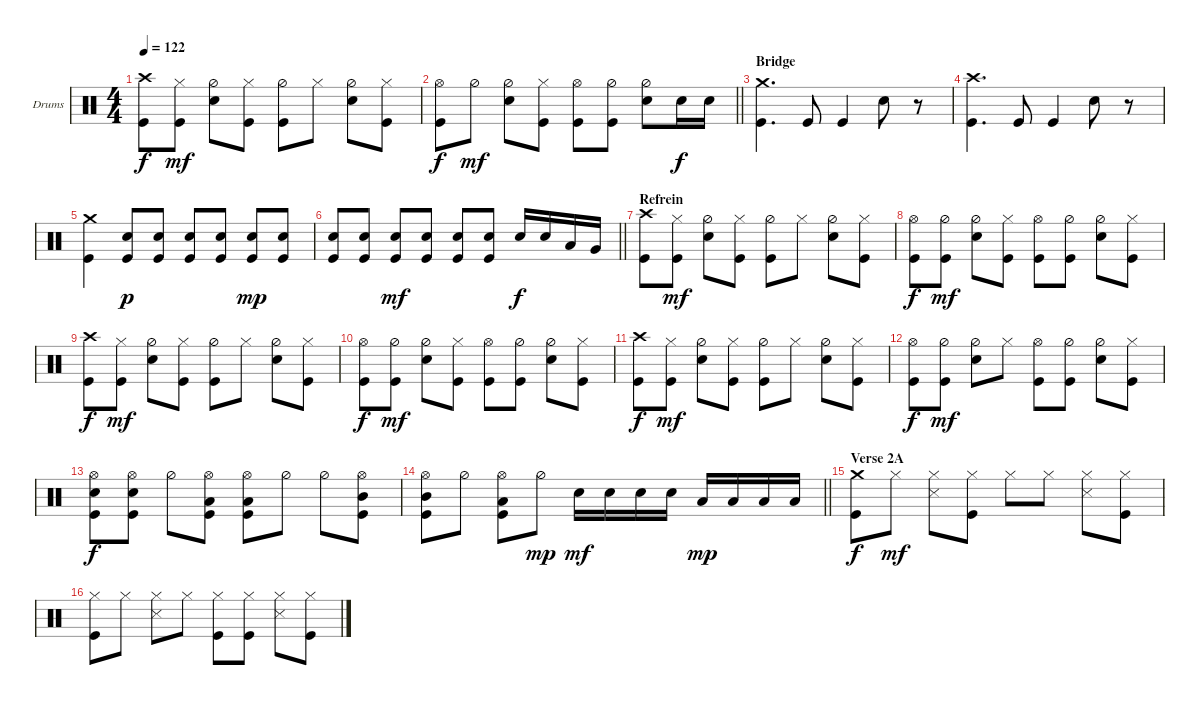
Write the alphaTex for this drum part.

\bracketExtendMode groupsimilarinstruments
\firstSystemTrackNameOrientation horizontal
\otherSystemsTrackNameOrientation horizontal
\track ("Batteria" "Drums") {instrument percussion}
\staff {score}
\articulation defaults
\ts (4 4)
\tempo 122
\clef neutral
\ks c
("Kick (hit)" "Crash high (hit)").8{dy f} ("Hi-Hat (closed)" "Kick (hit)").8{dy mf} ("Hi-Hat (half)" "Snare (hit) 2").8 ("Hi-Hat (closed)" "Kick (hit)").8 ("Hi-Hat (half)" "Kick (hit)").8 "Hi-Hat (closed)".8 ("Hi-Hat (half)" "Snare (hit) 2").8 ("Hi-Hat (closed)" "Kick (hit)").8 |
\barLineRight lightlight
("Kick (hit)" "Hi-Hat (open)").8{dy f} "Hi-Hat (half)".8{dy mf} ("Hi-Hat (half)" "Snare (hit) 2").8 ("Hi-Hat (closed)" "Kick (hit)").8 ("Hi-Hat (open)" "Kick (hit)").8 ("Hi-Hat (half)" "Kick (hit)").8 ("Hi-Hat (half)" "Snare (hit) 2").8 "Snare (hit) 2".16{dy f} "Snare (hit) 2".16 |
\section ("" "Bridge")
("Crash medium (hit)" "Kick (hit)").4{d} "Kick (hit)".8 "Kick (hit)".4 "Snare (hit) 2".8 r.8 |
("Kick (hit)" "Crash high (hit)").4{d} "Kick (hit)".8 "Kick (hit)".4 "Snare (hit) 2".8 r.8 |
("Crash medium (hit)" "Kick (hit)").4 ("Snare (hit) 2" "Kick (hit)").8{dy p} ("Kick (hit)" "Snare (hit) 2").8 ("Kick (hit)" "Snare (hit) 2").8 ("Snare (hit) 2" "Kick (hit)").8 ("Snare (hit) 2" "Kick (hit)").8{dy mp} ("Snare (hit) 2" "Kick (hit)").8 |
\barLineRight lightlight
("Snare (hit) 2" "Kick (hit)").8 ("Snare (hit) 2" "Kick (hit)").8 ("Snare (hit) 2" "Kick (hit)").8{dy mf} ("Snare (hit) 2" "Kick (hit)").8 ("Snare (hit) 2" "Kick (hit)").8 ("Snare (hit) 2" "Kick (hit)").8 "Snare (hit) 2".16{dy f} "Snare (hit) 2".16 "Low Tom (hit)".16 "Very Low Tom (hit)".16 |
\section ("" "Refrein")
("Kick (hit)" "Crash high (hit)").8 ("Hi-Hat (closed)" "Kick (hit)").8{dy mf} ("Hi-Hat (half)" "Snare (hit) 2").8 ("Hi-Hat (closed)" "Kick (hit)").8 ("Hi-Hat (half)" "Kick (hit)").8 "Hi-Hat (closed)".8 ("Hi-Hat (half)" "Snare (hit) 2").8 ("Hi-Hat (closed)" "Kick (hit)").8 |
("Kick (hit)" "Hi-Hat (open)").8{dy f} ("Hi-Hat (half)" "Kick (hit)").8{dy mf} ("Hi-Hat (half)" "Snare (hit) 2").8 ("Hi-Hat (closed)" "Kick (hit)").8 ("Hi-Hat (open)" "Kick (hit)").8 ("Hi-Hat (half)" "Kick (hit)").8 ("Hi-Hat (half)" "Snare (hit) 2").8 ("Hi-Hat (closed)" "Kick (hit)").8 |
("Kick (hit)" "Crash high (hit)").8{dy f} ("Hi-Hat (closed)" "Kick (hit)").8{dy mf} ("Hi-Hat (half)" "Snare (hit) 2").8 ("Hi-Hat (closed)" "Kick (hit)").8 ("Hi-Hat (half)" "Kick (hit)").8 "Hi-Hat (closed)".8 ("Hi-Hat (half)" "Snare (hit) 2").8 ("Hi-Hat (closed)" "Kick (hit)").8 |
("Kick (hit)" "Hi-Hat (open)").8{dy f} ("Hi-Hat (half)" "Kick (hit)").8{dy mf} ("Hi-Hat (half)" "Snare (hit) 2").8 ("Hi-Hat (closed)" "Kick (hit)").8 ("Hi-Hat (open)" "Kick (hit)").8 ("Hi-Hat (half)" "Kick (hit)").8 ("Hi-Hat (half)" "Snare (hit) 2").8 ("Hi-Hat (closed)" "Kick (hit)").8 |
("Kick (hit)" "Crash high (hit)").8{dy f} ("Hi-Hat (closed)" "Kick (hit)").8{dy mf} ("Hi-Hat (half)" "Snare (hit) 2").8 ("Hi-Hat (closed)" "Kick (hit)").8 ("Hi-Hat (half)" "Kick (hit)").8 "Hi-Hat (closed)".8 ("Hi-Hat (half)" "Snare (hit) 2").8 ("Hi-Hat (closed)" "Kick (hit)").8 |
("Kick (hit)" "Hi-Hat (open)").8{dy f} ("Hi-Hat (half)" "Kick (hit)").8{dy mf} ("Hi-Hat (half)" "Snare (hit) 2").8 "Hi-Hat (closed)".8 ("Hi-Hat (open)" "Kick (hit)").8 ("Hi-Hat (half)" "Kick (hit)").8 ("Hi-Hat (half)" "Snare (hit) 2").8 ("Hi-Hat (closed)" "Kick (hit)").8 |
("Hi-Hat (open)" "Snare (hit) 2" "Kick (hit)").8{dy f} ("Hi-Hat (open)" "Snare (hit) 2" "Kick (hit)").8 "Hi-Hat (half)".8 ("Low Tom (hit)" "Hi-Hat (open)" "Kick (hit)").8 ("Low Tom (hit)" "Hi-Hat (open)" "Kick (hit)").8 "Hi-Hat (half)".8 "Hi-Hat (half)".8 ("Hi-Hat (open)" "Kick (hit)" "Mid Tom (hit)").8 |
\barLineRight lightlight
("Kick (hit)" "Mid Tom (hit)" "Hi-Hat (open)").8 "Hi-Hat (half)".8 ("Low Tom (hit)" "Hi-Hat (open)" "Kick (hit)").8 "Hi-Hat (half)".8{dy mp} "Snare (hit) 2".16{dy mf} "Snare (hit) 2".16 "Snare (hit) 2".16 "Snare (hit) 2".16 "Low Tom (hit)".16{dy mp} "Low Tom (hit)".16 "Low Tom (hit)".16 "Low Tom (hit)".16 |
\section ("" "Verse 2A")
("Crash medium (hit)" "Kick (hit)").8{dy f} "Hi-Hat (closed)".8{dy mf} ("Hi-Hat (closed)" "Snare (side stick) 3").8 ("Hi-Hat (closed)" "Kick (hit)").8 "Hi-Hat (closed)".8 "Hi-Hat (closed)".8 ("Hi-Hat (closed)" "Snare (side stick) 3").8 ("Hi-Hat (closed)" "Kick (hit)").8 |
("Kick (hit)" "Hi-Hat (closed)").8 "Hi-Hat (closed)".8 ("Hi-Hat (closed)" "Snare (side stick) 3").8 "Hi-Hat (closed)".8 ("Hi-Hat (closed)" "Kick (hit)").8 ("Hi-Hat (closed)" "Kick (hit)").8 ("Hi-Hat (closed)" "Snare (side stick) 3").8 ("Hi-Hat (closed)" "Kick (hit)").8
